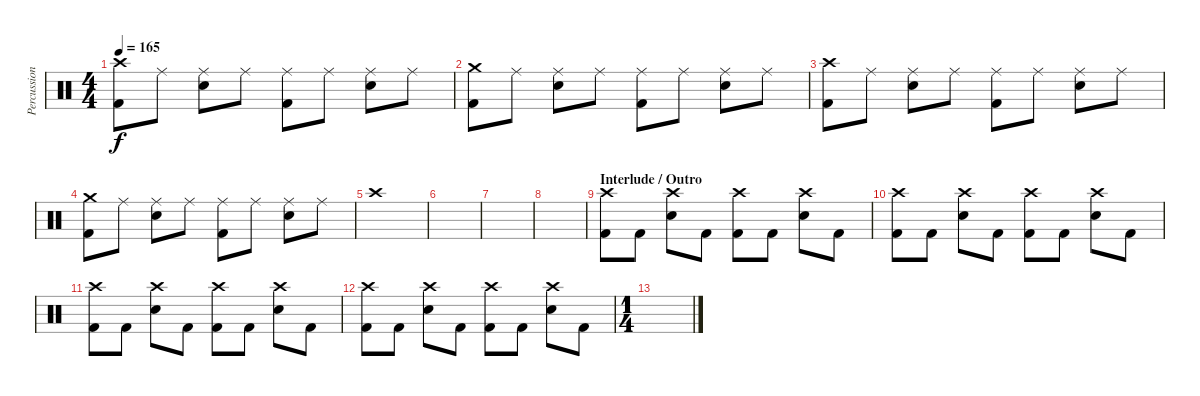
\track ("Percussion" "Percussion") {instrument percussion}
\staff {score}
\articulation defaults
\ts (4 4)
\tempo 165
\clef neutral
\ks c
("Crash high (hit)" "Kick (hit) 2").8{dy f} "Ride (middle)".8 ("Ride (middle)" "Electric Snare (hit)").8 "Ride (middle)".8 ("Ride (middle)" "Kick (hit) 2").8 "Ride (middle)".8 ("Ride (middle)" "Electric Snare (hit)").8 "Ride (middle)".8 |
("Crash medium (hit)" "Kick (hit) 2").8 "Ride (middle)".8 ("Ride (middle)" "Electric Snare (hit)").8 "Ride (middle)".8 ("Ride (middle)" "Kick (hit) 2").8 "Ride (middle)".8 ("Ride (middle)" "Electric Snare (hit)").8 "Ride (middle)".8 |
("Crash high (hit)" "Kick (hit) 2").8 "Ride (middle)".8 ("Ride (middle)" "Electric Snare (hit)").8 "Ride (middle)".8 ("Ride (middle)" "Kick (hit) 2").8 "Ride (middle)".8 ("Ride (middle)" "Electric Snare (hit)").8 "Ride (middle)".8 |
("Crash medium (hit)" "Kick (hit) 2").8 "Ride (middle)".8 ("Ride (middle)" "Electric Snare (hit)").8 "Ride (middle)".8 ("Ride (middle)" "Kick (hit) 2").8 "Ride (middle)".8 ("Ride (middle)" "Electric Snare (hit)").8 "Ride (middle)".8 |
"Crash high (hit)".1 |
|
|
|
\section ("" "Interlude / Outro")
("Crash high (hit)" "Kick (hit) 2").8 "Kick (hit) 2".8 ("Crash high (hit)" "Electric Snare (hit)").8 "Kick (hit) 2".8 ("Crash high (hit)" "Kick (hit) 2").8 "Kick (hit) 2".8 ("Crash high (hit)" "Electric Snare (hit)").8 "Kick (hit) 2".8 |
("Crash high (hit)" "Kick (hit) 2").8 "Kick (hit) 2".8 ("Crash high (hit)" "Electric Snare (hit)").8 "Kick (hit) 2".8 ("Crash high (hit)" "Kick (hit) 2").8 "Kick (hit) 2".8 ("Crash high (hit)" "Electric Snare (hit)").8 "Kick (hit) 2".8 |
("Crash high (hit)" "Kick (hit) 2").8 "Kick (hit) 2".8 ("Crash high (hit)" "Electric Snare (hit)").8 "Kick (hit) 2".8 ("Crash high (hit)" "Kick (hit) 2").8 "Kick (hit) 2".8 ("Crash high (hit)" "Electric Snare (hit)").8 "Kick (hit) 2".8 |
("Crash high (hit)" "Kick (hit) 2").8 "Kick (hit) 2".8 ("Crash high (hit)" "Electric Snare (hit)").8 "Kick (hit) 2".8 ("Crash high (hit)" "Kick (hit) 2").8 "Kick (hit) 2".8 ("Crash high (hit)" "Electric Snare (hit)").8 "Kick (hit) 2".8 |
\ts (1 4)
